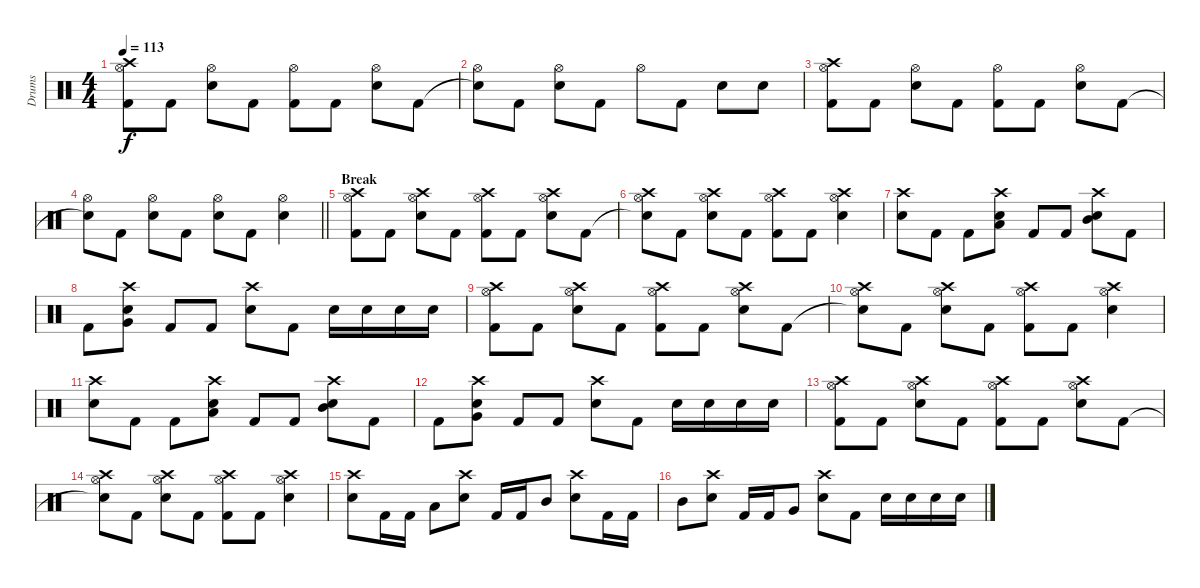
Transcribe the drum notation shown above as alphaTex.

\track ("Drums" "Drums") {instrument percussion}
\staff {score}
\articulation defaults
\ts (4 4)
\tempo 113
\clef neutral
\ks c
("Kick (hit) 2" "Hi-Hat (open)" "Crash high (hit)").8{dy f} "Kick (hit) 2".8 ("Electric Snare (hit)" "Hi-Hat (open)").8 "Kick (hit) 2".8 ("Kick (hit) 2" "Hi-Hat (open)").8 "Kick (hit) 2".8 ("Electric Snare (hit)" "Hi-Hat (open)").8 "Kick (hit) 2".8 |
("Snare (hit)"{t} "Hi-Hat (open)").8 "Kick (hit) 2".8 ("Electric Snare (hit)" "Hi-Hat (open)").8 "Kick (hit) 2".8 "Hi-Hat (open)".8 "Kick (hit) 2".8 "Electric Snare (hit)".8 "Electric Snare (hit)".8 |
("Kick (hit) 2" "Hi-Hat (open)" "Crash high (hit)").8 "Kick (hit) 2".8 ("Electric Snare (hit)" "Hi-Hat (open)").8 "Kick (hit) 2".8 ("Kick (hit) 2" "Hi-Hat (open)").8 "Kick (hit) 2".8 ("Electric Snare (hit)" "Hi-Hat (open)").8 "Kick (hit) 2".8 |
\barLineRight lightlight
("Snare (hit)"{t} "Hi-Hat (open)").8 "Kick (hit) 2".8 ("Electric Snare (hit)" "Hi-Hat (open)").8 "Kick (hit) 2".8 ("Electric Snare (hit)" "Hi-Hat (open)").8 "Kick (hit) 2".8 ("Electric Snare (hit)" "Hi-Hat (open)").4 |
\section ("" "Break")
("Kick (hit) 2" "Hi-Hat (open)" "Crash high (hit)").8 "Kick (hit) 2".8 ("Electric Snare (hit)" "Hi-Hat (open)" "Crash high (hit)").8 "Kick (hit) 2".8 ("Kick (hit) 2" "Hi-Hat (open)" "Crash high (hit)").8 "Kick (hit) 2".8 ("Electric Snare (hit)" "Hi-Hat (open)" "Crash high (hit)").8 "Kick (hit) 2".8 |
("Snare (hit)"{t} "Hi-Hat (open)" "Crash high (hit)").8 "Kick (hit) 2".8 ("Electric Snare (hit)" "Hi-Hat (open)" "Crash high (hit)").8 "Kick (hit) 2".8 ("Kick (hit) 2" "Hi-Hat (open)" "Crash high (hit)").8 "Kick (hit) 2".8 ("Electric Snare (hit)" "Hi-Hat (open)" "Crash high (hit)").4 |
("Electric Snare (hit)" "Crash high (hit)").8 "Kick (hit) 2".8 "Kick (hit) 2".8 ("Electric Snare (hit)" "Low Tom (hit)" "Crash high (hit)").8 "Kick (hit) 2".8 "Kick (hit) 2".8 ("Electric Snare (hit)" "Mid Tom (hit)" "Crash high (hit)").8 "Kick (hit) 2".8 |
"Kick (hit) 2".8 ("Electric Snare (hit)" "Very Low Tom (hit)" "Crash high (hit)").8 "Kick (hit) 2".8 "Kick (hit) 2".8 ("Electric Snare (hit)" "Crash high (hit)").8 "Kick (hit) 2".8 "Electric Snare (hit)".16 "Electric Snare (hit)".16 "Electric Snare (hit)".16 "Electric Snare (hit)".16 |
("Kick (hit) 2" "Hi-Hat (open)" "Crash high (hit)").8 "Kick (hit) 2".8 ("Electric Snare (hit)" "Hi-Hat (open)" "Crash high (hit)").8 "Kick (hit) 2".8 ("Kick (hit) 2" "Hi-Hat (open)" "Crash high (hit)").8 "Kick (hit) 2".8 ("Electric Snare (hit)" "Hi-Hat (open)" "Crash high (hit)").8 "Kick (hit) 2".8 |
("Snare (hit)"{t} "Hi-Hat (open)" "Crash high (hit)").8 "Kick (hit) 2".8 ("Electric Snare (hit)" "Hi-Hat (open)" "Crash high (hit)").8 "Kick (hit) 2".8 ("Kick (hit) 2" "Hi-Hat (open)" "Crash high (hit)").8 "Kick (hit) 2".8 ("Electric Snare (hit)" "Hi-Hat (open)" "Crash high (hit)").4 |
("Electric Snare (hit)" "Crash high (hit)").8 "Kick (hit) 2".8 "Kick (hit) 2".8 ("Electric Snare (hit)" "Low Tom (hit)" "Crash high (hit)").8 "Kick (hit) 2".8 "Kick (hit) 2".8 ("Electric Snare (hit)" "Mid Tom (hit)" "Crash high (hit)").8 "Kick (hit) 2".8 |
"Kick (hit) 2".8 ("Electric Snare (hit)" "Very Low Tom (hit)" "Crash high (hit)").8 "Kick (hit) 2".8 "Kick (hit) 2".8 ("Electric Snare (hit)" "Crash high (hit)").8 "Kick (hit) 2".8 "Electric Snare (hit)".16 "Electric Snare (hit)".16 "Electric Snare (hit)".16 "Electric Snare (hit)".16 |
("Kick (hit) 2" "Hi-Hat (open)" "Crash high (hit)").8 "Kick (hit) 2".8 ("Electric Snare (hit)" "Hi-Hat (open)" "Crash high (hit)").8 "Kick (hit) 2".8 ("Kick (hit) 2" "Hi-Hat (open)" "Crash high (hit)").8 "Kick (hit) 2".8 ("Electric Snare (hit)" "Hi-Hat (open)" "Crash high (hit)").8 "Kick (hit) 2".8 |
("Snare (hit)"{t} "Hi-Hat (open)" "Crash high (hit)").8 "Kick (hit) 2".8 ("Electric Snare (hit)" "Hi-Hat (open)" "Crash high (hit)").8 "Kick (hit) 2".8 ("Kick (hit) 2" "Hi-Hat (open)" "Crash high (hit)").8 "Kick (hit) 2".8 ("Electric Snare (hit)" "Hi-Hat (open)" "Crash high (hit)").4 |
("Electric Snare (hit)" "Crash high (hit)").8 "Kick (hit) 2".16 "Kick (hit) 2".16 "Low Tom (hit)".8 ("Electric Snare (hit)" "Crash high (hit)").8 "Kick (hit) 2".16 "Kick (hit) 2".16 "Mid Tom (hit)".8 ("Electric Snare (hit)" "Crash high (hit)").8 "Kick (hit) 2".16 "Kick (hit) 2".16 |
"Mid Tom (hit)".8 ("Electric Snare (hit)" "Crash high (hit)").8 "Kick (hit) 2".16 "Kick (hit) 2".16 "Very Low Tom (hit)".8 ("Electric Snare (hit)" "Crash high (hit)").8 "Kick (hit) 2".8 "Electric Snare (hit)".16 "Electric Snare (hit)".16 "Electric Snare (hit)".16 "Electric Snare (hit)".16
